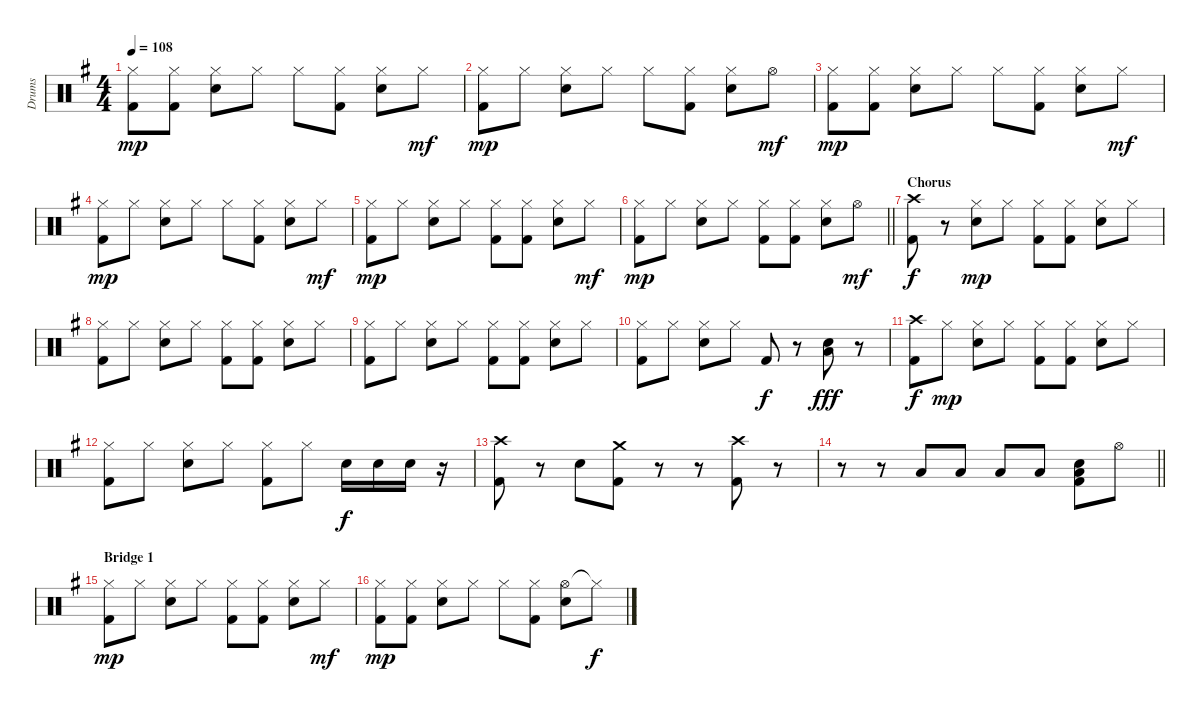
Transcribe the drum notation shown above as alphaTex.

\track ("Drums" "Drums") {instrument percussion}
\staff {score}
\articulation defaults
\ts (4 4)
\tempo 108
\clef neutral
\ks g
("Hi-Hat (closed)" "Kick (hit) 2").8{dy mp} ("Hi-Hat (closed)" "Kick (hit) 2").8 ("Hi-Hat (closed)" "Snare (hit) 2").8 "Hi-Hat (closed)".8 "Hi-Hat (closed)".8 ("Hi-Hat (closed)" "Kick (hit) 2").8 ("Hi-Hat (closed)" "Snare (hit) 2").8 "Hi-Hat (closed)".8{dy mf} |
("Hi-Hat (closed)" "Kick (hit) 2").8{dy mp} "Hi-Hat (closed)".8 ("Hi-Hat (closed)" "Snare (hit) 2").8 "Hi-Hat (closed)".8 "Hi-Hat (closed)".8 ("Hi-Hat (closed)" "Kick (hit) 2").8 ("Hi-Hat (closed)" "Snare (hit) 2").8 "Hi-Hat (open)".8{dy mf} |
("Hi-Hat (closed)" "Kick (hit) 2").8{dy mp} ("Hi-Hat (closed)" "Kick (hit) 2").8 ("Hi-Hat (closed)" "Snare (hit) 2").8 "Hi-Hat (closed)".8 "Hi-Hat (closed)".8 ("Hi-Hat (closed)" "Kick (hit) 2").8 ("Hi-Hat (closed)" "Snare (hit) 2").8 "Hi-Hat (closed)".8{dy mf} |
("Hi-Hat (closed)" "Kick (hit) 2").8{dy mp} "Hi-Hat (closed)".8 ("Hi-Hat (closed)" "Snare (hit) 2").8 "Hi-Hat (closed)".8 "Hi-Hat (closed)".8 ("Hi-Hat (closed)" "Kick (hit) 2").8 ("Hi-Hat (closed)" "Snare (hit) 2").8 "Hi-Hat (closed)".8{dy mf} |
("Hi-Hat (closed)" "Kick (hit) 2").8{dy mp} "Hi-Hat (closed)".8 ("Hi-Hat (closed)" "Snare (hit) 2").8 "Hi-Hat (closed)".8 ("Hi-Hat (closed)" "Kick (hit) 2").8 ("Hi-Hat (closed)" "Kick (hit) 2").8 ("Hi-Hat (closed)" "Snare (hit) 2").8 "Hi-Hat (closed)".8{dy mf} |
\barLineRight lightlight
("Hi-Hat (closed)" "Kick (hit) 2").8{dy mp} "Hi-Hat (closed)".8 ("Hi-Hat (closed)" "Snare (hit) 2").8 "Hi-Hat (closed)".8 ("Hi-Hat (closed)" "Kick (hit) 2").8 ("Hi-Hat (closed)" "Kick (hit) 2").8 ("Hi-Hat (closed)" "Snare (hit) 2").8 "Hi-Hat (open)".8{dy mf} |
\section ("" "Chorus")
("Crash high (hit)" "Kick (hit) 2").8{dy f} r.8 ("Hi-Hat (closed)" "Snare (hit) 2").8{dy mp} "Hi-Hat (closed)".8 ("Hi-Hat (closed)" "Kick (hit) 2").8 ("Hi-Hat (closed)" "Kick (hit) 2").8 ("Hi-Hat (closed)" "Snare (hit) 2").8 "Hi-Hat (closed)".8 |
("Hi-Hat (closed)" "Kick (hit) 2").8 "Hi-Hat (closed)".8 ("Hi-Hat (closed)" "Snare (hit) 2").8 "Hi-Hat (closed)".8 ("Hi-Hat (closed)" "Kick (hit) 2").8 ("Hi-Hat (closed)" "Kick (hit) 2").8 ("Hi-Hat (closed)" "Snare (hit) 2").8 "Hi-Hat (closed)".8 |
("Hi-Hat (closed)" "Kick (hit) 2").8 "Hi-Hat (closed)".8 ("Hi-Hat (closed)" "Snare (hit) 2").8 "Hi-Hat (closed)".8 ("Hi-Hat (closed)" "Kick (hit) 2").8 ("Hi-Hat (closed)" "Kick (hit) 2").8 ("Hi-Hat (closed)" "Snare (hit) 2").8 "Hi-Hat (closed)".8 |
("Hi-Hat (closed)" "Kick (hit) 2").8 "Hi-Hat (closed)".8 ("Hi-Hat (closed)" "Snare (hit) 2").8 "Hi-Hat (closed)".8 "Kick (hit) 2".8{dy f} r.8 ("Snare (hit) 2" "Low Tom (hit)").8{dy fff} r.8 |
("Crash high (hit)" "Kick (hit) 2").8{dy f} "Hi-Hat (closed)".8{dy mp} ("Hi-Hat (closed)" "Snare (hit) 2").8 "Hi-Hat (closed)".8 ("Hi-Hat (closed)" "Kick (hit) 2").8 ("Hi-Hat (closed)" "Kick (hit) 2").8 ("Hi-Hat (closed)" "Snare (hit) 2").8 "Hi-Hat (closed)".8 |
("Hi-Hat (closed)" "Kick (hit) 2").8 "Hi-Hat (closed)".8 ("Hi-Hat (closed)" "Snare (hit) 2").8 "Hi-Hat (closed)".8 ("Hi-Hat (closed)" "Kick (hit) 2").8 "Hi-Hat (closed)".8 "Snare (hit) 2".16{dy f} "Snare (hit) 2".16 "Snare (hit) 2".16 r.16 |
("Crash high (hit)" "Kick (hit) 2").8 r.8 "Snare (hit) 2".8 ("Crash medium (hit)" "Kick (hit) 2").8 r.8 r.8 ("Crash high (hit)" "Kick (hit) 2").8 r.8 |
\barLineRight lightlight
r.8 r.8 "Low Floor Tom (hit)".8 "Low Floor Tom (hit)".8 "Low Floor Tom (hit)".8 "Low Floor Tom (hit)".8 ("Snare (hit) 2" "Low Floor Tom (hit)" "Kick (hit) 2").8 "Hi-Hat (open)".8 |
\section ("" "Bridge 1")
("Hi-Hat (closed)" "Kick (hit) 2").8{dy mp} "Hi-Hat (closed)".8 ("Hi-Hat (closed)" "Snare (hit) 2").8 "Hi-Hat (closed)".8 ("Hi-Hat (closed)" "Kick (hit) 2").8 ("Hi-Hat (closed)" "Kick (hit) 2").8 ("Hi-Hat (closed)" "Snare (hit) 2").8 "Hi-Hat (closed)".8{dy mf} |
("Hi-Hat (closed)" "Kick (hit) 2").8{dy mp} ("Hi-Hat (closed)" "Kick (hit) 2").8 ("Hi-Hat (closed)" "Snare (hit) 2").8 "Hi-Hat (closed)".8 "Hi-Hat (closed)".8 ("Hi-Hat (closed)" "Kick (hit) 2").8 ("Hi-Hat (open)" "Snare (hit) 2").8 "Hi-Hat (closed)"{t}.8{dy f}
